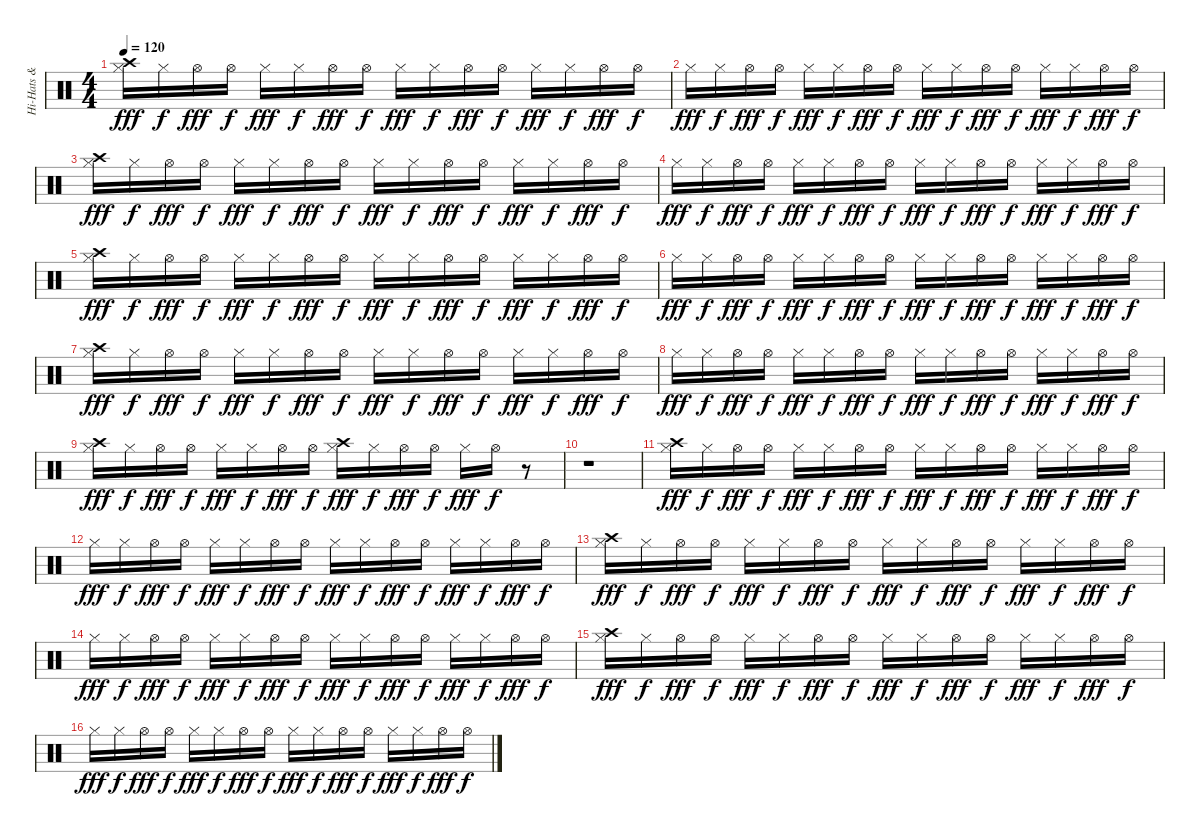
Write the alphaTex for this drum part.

\track ("Hi-Hats & Cymbal" "Hi-Hats & ") {instrument percussion}
\staff {score}
\articulation defaults
\ts (4 4)
\tempo 120
\clef neutral
\ks c
("Hi-Hat (closed)" "Crash high (hit)").16{dy fff} "Hi-Hat (closed)".16{dy f} "Hi-Hat (open)".16{dy fff} "Hi-Hat (open)".16{dy f} "Hi-Hat (closed)".16{dy fff} "Hi-Hat (closed)".16{dy f} "Hi-Hat (open)".16{dy fff} "Hi-Hat (open)".16{dy f} "Hi-Hat (closed)".16{dy fff} "Hi-Hat (closed)".16{dy f} "Hi-Hat (open)".16{dy fff} "Hi-Hat (open)".16{dy f} "Hi-Hat (closed)".16{dy fff} "Hi-Hat (closed)".16{dy f} "Hi-Hat (open)".16{dy fff} "Hi-Hat (open)".16{dy f} |
"Hi-Hat (closed)".16{dy fff} "Hi-Hat (closed)".16{dy f} "Hi-Hat (open)".16{dy fff} "Hi-Hat (open)".16{dy f} "Hi-Hat (closed)".16{dy fff} "Hi-Hat (closed)".16{dy f} "Hi-Hat (open)".16{dy fff} "Hi-Hat (open)".16{dy f} "Hi-Hat (closed)".16{dy fff} "Hi-Hat (closed)".16{dy f} "Hi-Hat (open)".16{dy fff} "Hi-Hat (open)".16{dy f} "Hi-Hat (closed)".16{dy fff} "Hi-Hat (closed)".16{dy f} "Hi-Hat (open)".16{dy fff} "Hi-Hat (open)".16{dy f} |
("Hi-Hat (closed)" "Crash high (hit)").16{dy fff} "Hi-Hat (closed)".16{dy f} "Hi-Hat (open)".16{dy fff} "Hi-Hat (open)".16{dy f} "Hi-Hat (closed)".16{dy fff} "Hi-Hat (closed)".16{dy f} "Hi-Hat (open)".16{dy fff} "Hi-Hat (open)".16{dy f} "Hi-Hat (closed)".16{dy fff} "Hi-Hat (closed)".16{dy f} "Hi-Hat (open)".16{dy fff} "Hi-Hat (open)".16{dy f} "Hi-Hat (closed)".16{dy fff} "Hi-Hat (closed)".16{dy f} "Hi-Hat (open)".16{dy fff} "Hi-Hat (open)".16{dy f} |
"Hi-Hat (closed)".16{dy fff} "Hi-Hat (closed)".16{dy f} "Hi-Hat (open)".16{dy fff} "Hi-Hat (open)".16{dy f} "Hi-Hat (closed)".16{dy fff} "Hi-Hat (closed)".16{dy f} "Hi-Hat (open)".16{dy fff} "Hi-Hat (open)".16{dy f} "Hi-Hat (closed)".16{dy fff} "Hi-Hat (closed)".16{dy f} "Hi-Hat (open)".16{dy fff} "Hi-Hat (open)".16{dy f} "Hi-Hat (closed)".16{dy fff} "Hi-Hat (closed)".16{dy f} "Hi-Hat (open)".16{dy fff} "Hi-Hat (open)".16{dy f} |
("Hi-Hat (closed)" "Crash high (hit)").16{dy fff} "Hi-Hat (closed)".16{dy f} "Hi-Hat (open)".16{dy fff} "Hi-Hat (open)".16{dy f} "Hi-Hat (closed)".16{dy fff} "Hi-Hat (closed)".16{dy f} "Hi-Hat (open)".16{dy fff} "Hi-Hat (open)".16{dy f} "Hi-Hat (closed)".16{dy fff} "Hi-Hat (closed)".16{dy f} "Hi-Hat (open)".16{dy fff} "Hi-Hat (open)".16{dy f} "Hi-Hat (closed)".16{dy fff} "Hi-Hat (closed)".16{dy f} "Hi-Hat (open)".16{dy fff} "Hi-Hat (open)".16{dy f} |
"Hi-Hat (closed)".16{dy fff} "Hi-Hat (closed)".16{dy f} "Hi-Hat (open)".16{dy fff} "Hi-Hat (open)".16{dy f} "Hi-Hat (closed)".16{dy fff} "Hi-Hat (closed)".16{dy f} "Hi-Hat (open)".16{dy fff} "Hi-Hat (open)".16{dy f} "Hi-Hat (closed)".16{dy fff} "Hi-Hat (closed)".16{dy f} "Hi-Hat (open)".16{dy fff} "Hi-Hat (open)".16{dy f} "Hi-Hat (closed)".16{dy fff} "Hi-Hat (closed)".16{dy f} "Hi-Hat (open)".16{dy fff} "Hi-Hat (open)".16{dy f} |
("Hi-Hat (closed)" "Crash high (hit)").16{dy fff} "Hi-Hat (closed)".16{dy f} "Hi-Hat (open)".16{dy fff} "Hi-Hat (open)".16{dy f} "Hi-Hat (closed)".16{dy fff} "Hi-Hat (closed)".16{dy f} "Hi-Hat (open)".16{dy fff} "Hi-Hat (open)".16{dy f} "Hi-Hat (closed)".16{dy fff} "Hi-Hat (closed)".16{dy f} "Hi-Hat (open)".16{dy fff} "Hi-Hat (open)".16{dy f} "Hi-Hat (closed)".16{dy fff} "Hi-Hat (closed)".16{dy f} "Hi-Hat (open)".16{dy fff} "Hi-Hat (open)".16{dy f} |
"Hi-Hat (closed)".16{dy fff} "Hi-Hat (closed)".16{dy f} "Hi-Hat (open)".16{dy fff} "Hi-Hat (open)".16{dy f} "Hi-Hat (closed)".16{dy fff} "Hi-Hat (closed)".16{dy f} "Hi-Hat (open)".16{dy fff} "Hi-Hat (open)".16{dy f} "Hi-Hat (closed)".16{dy fff} "Hi-Hat (closed)".16{dy f} "Hi-Hat (open)".16{dy fff} "Hi-Hat (open)".16{dy f} "Hi-Hat (closed)".16{dy fff} "Hi-Hat (closed)".16{dy f} "Hi-Hat (open)".16{dy fff} "Hi-Hat (open)".16{dy f} |
("Hi-Hat (closed)" "Crash high (hit)").16{dy fff} "Hi-Hat (closed)".16{dy f} "Hi-Hat (open)".16{dy fff} "Hi-Hat (open)".16{dy f} "Hi-Hat (closed)".16{dy fff} "Hi-Hat (closed)".16{dy f} "Hi-Hat (open)".16{dy fff} "Hi-Hat (open)".16{dy f} ("Hi-Hat (closed)" "Crash high (hit)").16{dy fff} "Hi-Hat (closed)".16{dy f} "Hi-Hat (open)".16{dy fff} "Hi-Hat (open)".16{dy f} "Hi-Hat (closed)".16{dy fff} "Hi-Hat (open)".16{dy f} r.8 |
r.1 |
("Hi-Hat (closed)" "Crash high (hit)").16{dy fff} "Hi-Hat (closed)".16{dy f} "Hi-Hat (open)".16{dy fff} "Hi-Hat (open)".16{dy f} "Hi-Hat (closed)".16{dy fff} "Hi-Hat (closed)".16{dy f} "Hi-Hat (open)".16{dy fff} "Hi-Hat (open)".16{dy f} "Hi-Hat (closed)".16{dy fff} "Hi-Hat (closed)".16{dy f} "Hi-Hat (open)".16{dy fff} "Hi-Hat (open)".16{dy f} "Hi-Hat (closed)".16{dy fff} "Hi-Hat (closed)".16{dy f} "Hi-Hat (open)".16{dy fff} "Hi-Hat (open)".16{dy f} |
"Hi-Hat (closed)".16{dy fff} "Hi-Hat (closed)".16{dy f} "Hi-Hat (open)".16{dy fff} "Hi-Hat (open)".16{dy f} "Hi-Hat (closed)".16{dy fff} "Hi-Hat (closed)".16{dy f} "Hi-Hat (open)".16{dy fff} "Hi-Hat (open)".16{dy f} "Hi-Hat (closed)".16{dy fff} "Hi-Hat (closed)".16{dy f} "Hi-Hat (open)".16{dy fff} "Hi-Hat (open)".16{dy f} "Hi-Hat (closed)".16{dy fff} "Hi-Hat (closed)".16{dy f} "Hi-Hat (open)".16{dy fff} "Hi-Hat (open)".16{dy f} |
("Hi-Hat (closed)" "Crash high (hit)").16{dy fff} "Hi-Hat (closed)".16{dy f} "Hi-Hat (open)".16{dy fff} "Hi-Hat (open)".16{dy f} "Hi-Hat (closed)".16{dy fff} "Hi-Hat (closed)".16{dy f} "Hi-Hat (open)".16{dy fff} "Hi-Hat (open)".16{dy f} "Hi-Hat (closed)".16{dy fff} "Hi-Hat (closed)".16{dy f} "Hi-Hat (open)".16{dy fff} "Hi-Hat (open)".16{dy f} "Hi-Hat (closed)".16{dy fff} "Hi-Hat (closed)".16{dy f} "Hi-Hat (open)".16{dy fff} "Hi-Hat (open)".16{dy f} |
"Hi-Hat (closed)".16{dy fff} "Hi-Hat (closed)".16{dy f} "Hi-Hat (open)".16{dy fff} "Hi-Hat (open)".16{dy f} "Hi-Hat (closed)".16{dy fff} "Hi-Hat (closed)".16{dy f} "Hi-Hat (open)".16{dy fff} "Hi-Hat (open)".16{dy f} "Hi-Hat (closed)".16{dy fff} "Hi-Hat (closed)".16{dy f} "Hi-Hat (open)".16{dy fff} "Hi-Hat (open)".16{dy f} "Hi-Hat (closed)".16{dy fff} "Hi-Hat (closed)".16{dy f} "Hi-Hat (open)".16{dy fff} "Hi-Hat (open)".16{dy f} |
("Hi-Hat (closed)" "Crash high (hit)").16{dy fff} "Hi-Hat (closed)".16{dy f} "Hi-Hat (open)".16{dy fff} "Hi-Hat (open)".16{dy f} "Hi-Hat (closed)".16{dy fff} "Hi-Hat (closed)".16{dy f} "Hi-Hat (open)".16{dy fff} "Hi-Hat (open)".16{dy f} "Hi-Hat (closed)".16{dy fff} "Hi-Hat (closed)".16{dy f} "Hi-Hat (open)".16{dy fff} "Hi-Hat (open)".16{dy f} "Hi-Hat (closed)".16{dy fff} "Hi-Hat (closed)".16{dy f} "Hi-Hat (open)".16{dy fff} "Hi-Hat (open)".16{dy f} |
"Hi-Hat (closed)".16{dy fff} "Hi-Hat (closed)".16{dy f} "Hi-Hat (open)".16{dy fff} "Hi-Hat (open)".16{dy f} "Hi-Hat (closed)".16{dy fff} "Hi-Hat (closed)".16{dy f} "Hi-Hat (open)".16{dy fff} "Hi-Hat (open)".16{dy f} "Hi-Hat (closed)".16{dy fff} "Hi-Hat (closed)".16{dy f} "Hi-Hat (open)".16{dy fff} "Hi-Hat (open)".16{dy f} "Hi-Hat (closed)".16{dy fff} "Hi-Hat (closed)".16{dy f} "Hi-Hat (open)".16{dy fff} "Hi-Hat (open)".16{dy f}
